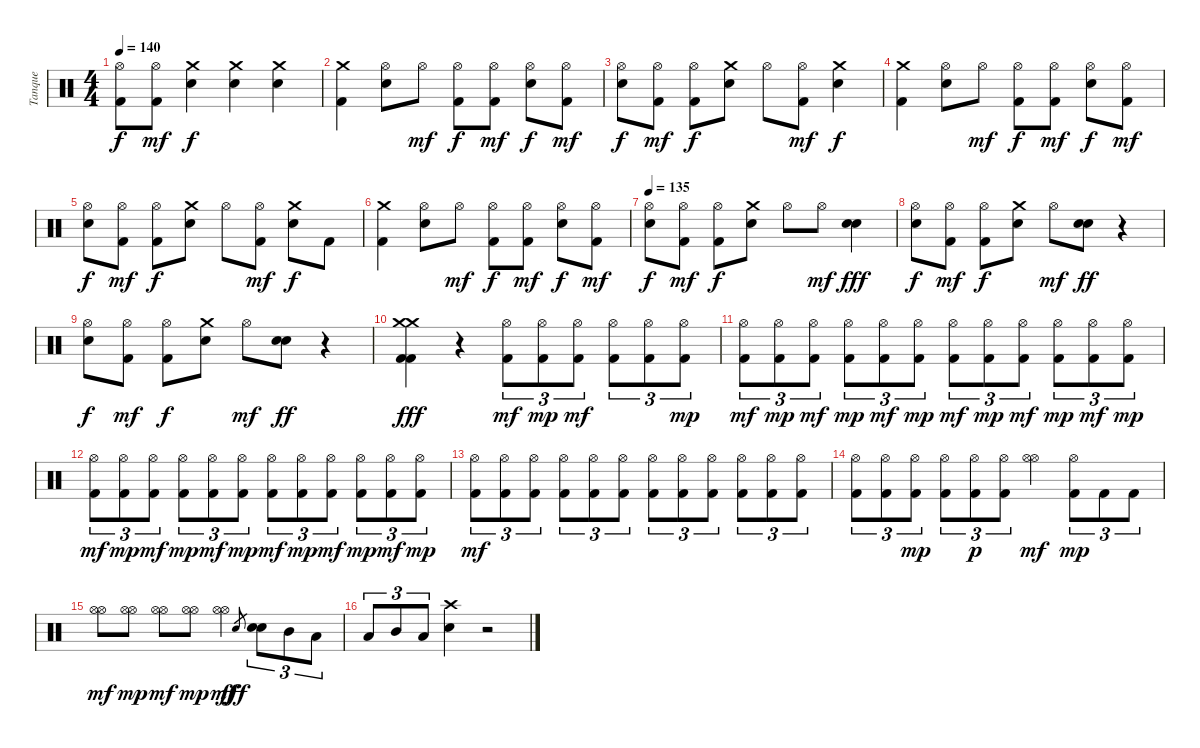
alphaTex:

\track ("Tanque" "Tanque") {instrument percussion}
\staff {score}
\articulation defaults
\ts (4 4)
\tempo 140
\clef neutral
\ks c
("Hi-Hat (open)" "Kick (hit) 2").8{dy f} ("Hi-Hat (open)" "Kick (hit) 2").8{dy mf} ("Crash medium (hit)" "Electric Snare (hit)").4{dy f} ("Crash medium (hit)" "Electric Snare (hit)").4 ("Crash medium (hit)" "Electric Snare (hit)").4 |
("Crash medium (hit)" "Kick (hit) 2").4 ("Hi-Hat (open)" "Electric Snare (hit)").8 "Hi-Hat (open)".8{dy mf} ("Hi-Hat (open)" "Kick (hit) 2").8{dy f} ("Hi-Hat (open)" "Kick (hit) 2").8{dy mf} ("Hi-Hat (open)" "Electric Snare (hit)").8{dy f} ("Hi-Hat (open)" "Kick (hit) 2").8{dy mf} |
("Hi-Hat (open)" "Electric Snare (hit)").8{dy f} ("Hi-Hat (open)" "Kick (hit) 2").8{dy mf} ("Hi-Hat (open)" "Kick (hit) 2").8{dy f} ("Crash medium (hit)" "Electric Snare (hit)").8 "Hi-Hat (open)".8 ("Hi-Hat (open)" "Kick (hit) 2").8{dy mf} ("Crash medium (hit)" "Electric Snare (hit)").4{dy f} |
("Crash medium (hit)" "Kick (hit) 2").4 ("Hi-Hat (open)" "Electric Snare (hit)").8 "Hi-Hat (open)".8{dy mf} ("Hi-Hat (open)" "Kick (hit) 2").8{dy f} ("Hi-Hat (open)" "Kick (hit) 2").8{dy mf} ("Hi-Hat (open)" "Electric Snare (hit)").8{dy f} ("Hi-Hat (open)" "Kick (hit) 2").8{dy mf} |
("Hi-Hat (open)" "Electric Snare (hit)").8{dy f} ("Hi-Hat (open)" "Kick (hit) 2").8{dy mf} ("Hi-Hat (open)" "Kick (hit) 2").8{dy f} ("Crash medium (hit)" "Electric Snare (hit)").8 "Hi-Hat (open)".8 ("Hi-Hat (open)" "Kick (hit) 2").8{dy mf} ("Crash medium (hit)" "Electric Snare (hit)").8{dy f} "Kick (hit) 2".8 |
("Crash medium (hit)" "Kick (hit) 2").4 ("Hi-Hat (open)" "Electric Snare (hit)").8 "Hi-Hat (open)".8{dy mf} ("Hi-Hat (open)" "Kick (hit) 2").8{dy f} ("Hi-Hat (open)" "Kick (hit) 2").8{dy mf} ("Hi-Hat (open)" "Electric Snare (hit)").8{dy f} ("Hi-Hat (open)" "Kick (hit) 2").8{dy mf} |
\tempo 135
("Hi-Hat (open)" "Electric Snare (hit)").8{dy f} ("Hi-Hat (open)" "Kick (hit) 2").8{dy mf} ("Hi-Hat (open)" "Kick (hit) 2").8{dy f} ("Crash medium (hit)" "Electric Snare (hit)").8 "Hi-Hat (open)".8 "Hi-Hat (open)".8{dy mf} ("Electric Snare (hit)" "Electric Snare (hit)").4{dy fff} |
("Hi-Hat (open)" "Electric Snare (hit)").8{dy f} ("Hi-Hat (open)" "Kick (hit) 2").8{dy mf} ("Hi-Hat (open)" "Kick (hit) 2").8{dy f} ("Crash medium (hit)" "Electric Snare (hit)").8 "Hi-Hat (open)".8{dy mf} ("Electric Snare (hit)" "Electric Snare (hit)").8{dy ff} r.4 |
("Hi-Hat (open)" "Electric Snare (hit)").8{dy f} ("Hi-Hat (open)" "Kick (hit) 2").8{dy mf} ("Hi-Hat (open)" "Kick (hit) 2").8{dy f} ("Crash medium (hit)" "Electric Snare (hit)").8 "Hi-Hat (open)".8{dy mf} ("Electric Snare (hit)" "Electric Snare (hit)").8{dy ff} r.4 |
("Crash medium (hit)" "Crash medium (hit)" "Kick (hit) 2" "Kick (hit) 2").4{dy fff} r.4 ("Hi-Hat (open)" "Kick (hit) 2").8{tu (3 2) dy mf} ("Hi-Hat (open)" "Kick (hit) 2").8{tu (3 2) dy mp} ("Hi-Hat (open)" "Kick (hit) 2").8{tu (3 2) dy mf} ("Hi-Hat (open)" "Kick (hit) 2").8{tu (3 2)} ("Hi-Hat (open)" "Kick (hit) 2").8{tu (3 2)} ("Hi-Hat (open)" "Kick (hit) 2").8{tu (3 2) dy mp} |
("Hi-Hat (open)" "Kick (hit) 2").8{tu (3 2) dy mf} ("Hi-Hat (open)" "Kick (hit) 2").8{tu (3 2) dy mp} ("Hi-Hat (open)" "Kick (hit) 2").8{tu (3 2) dy mf} ("Hi-Hat (open)" "Kick (hit) 2").8{tu (3 2) dy mp} ("Hi-Hat (open)" "Kick (hit) 2").8{tu (3 2) dy mf} ("Hi-Hat (open)" "Kick (hit) 2").8{tu (3 2) dy mp} ("Hi-Hat (open)" "Kick (hit) 2").8{tu (3 2) dy mf} ("Hi-Hat (open)" "Kick (hit) 2").8{tu (3 2) dy mp} ("Hi-Hat (open)" "Kick (hit) 2").8{tu (3 2) dy mf} ("Hi-Hat (open)" "Kick (hit) 2").8{tu (3 2) dy mp} ("Hi-Hat (open)" "Kick (hit) 2").8{tu (3 2) dy mf} ("Hi-Hat (open)" "Kick (hit) 2").8{tu (3 2) dy mp} |
("Hi-Hat (open)" "Kick (hit) 2").8{tu (3 2) dy mf} ("Hi-Hat (open)" "Kick (hit) 2").8{tu (3 2) dy mp} ("Hi-Hat (open)" "Kick (hit) 2").8{tu (3 2) dy mf} ("Hi-Hat (open)" "Kick (hit) 2").8{tu (3 2) dy mp} ("Hi-Hat (open)" "Kick (hit) 2").8{tu (3 2) dy mf} ("Hi-Hat (open)" "Kick (hit) 2").8{tu (3 2) dy mp} ("Hi-Hat (open)" "Kick (hit) 2").8{tu (3 2) dy mf} ("Hi-Hat (open)" "Kick (hit) 2").8{tu (3 2) dy mp} ("Hi-Hat (open)" "Kick (hit) 2").8{tu (3 2) dy mf} ("Hi-Hat (open)" "Kick (hit) 2").8{tu (3 2) dy mp} ("Hi-Hat (open)" "Kick (hit) 2").8{tu (3 2) dy mf} ("Hi-Hat (open)" "Kick (hit) 2").8{tu (3 2) dy mp} |
("Hi-Hat (open)" "Kick (hit) 2").8{tu (3 2) dy mf} ("Hi-Hat (open)" "Kick (hit) 2").8{tu (3 2)} ("Hi-Hat (open)" "Kick (hit) 2").8{tu (3 2)} ("Hi-Hat (open)" "Kick (hit) 2").8{tu (3 2)} ("Hi-Hat (open)" "Kick (hit) 2").8{tu (3 2)} ("Hi-Hat (open)" "Kick (hit) 2").8{tu (3 2)} ("Hi-Hat (open)" "Kick (hit) 2").8{tu (3 2)} ("Hi-Hat (open)" "Kick (hit) 2").8{tu (3 2)} ("Hi-Hat (open)" "Kick (hit) 2").8{tu (3 2)} ("Hi-Hat (open)" "Kick (hit) 2").8{tu (3 2)} ("Hi-Hat (open)" "Kick (hit) 2").8{tu (3 2)} ("Hi-Hat (open)" "Kick (hit) 2").8{tu (3 2)} |
("Hi-Hat (open)" "Kick (hit) 2").8{tu (3 2)} ("Hi-Hat (open)" "Kick (hit) 2").8{tu (3 2)} ("Hi-Hat (open)" "Kick (hit) 2").8{tu (3 2) dy mp} ("Hi-Hat (open)" "Kick (hit) 2").8{tu (3 2)} ("Hi-Hat (open)" "Kick (hit) 2").8{tu (3 2) dy p} ("Hi-Hat (open)" "Kick (hit) 2").8{tu (3 2)} ("Hi-Hat (open)" "Hi-Hat (open)").4{dy mf} ("Hi-Hat (open)" "Kick (hit) 2").8{tu (3 2) dy mp} "Kick (hit) 2".8{tu (3 2)} "Kick (hit) 2".8{tu (3 2)} |
("Hi-Hat (open)" "Hi-Hat (open)").8{dy mf} ("Hi-Hat (open)" "Hi-Hat (open)").8{dy mp} ("Hi-Hat (open)" "Hi-Hat (open)").8{dy mf} ("Hi-Hat (open)" "Hi-Hat (open)").8{dy mp} ("Hi-Hat (open)" "Hi-Hat (open)").4{dy mf} "Electric Snare (hit)".8{gr dy fff} ("Electric Snare (hit)" "Electric Snare (hit)").8{tu (3 2) volume 16} "Mid Tom (hit)".8{tu (3 2)} "Low Tom (hit)".8{tu (3 2)} |
"Low Tom (hit)".8{tu (3 2)} "Mid Tom (hit)".8{tu (3 2)} "Low Tom (hit)".8{tu (3 2)} ("Crash high (hit)" "Electric Snare (hit)").4 r.2{volume 14}
